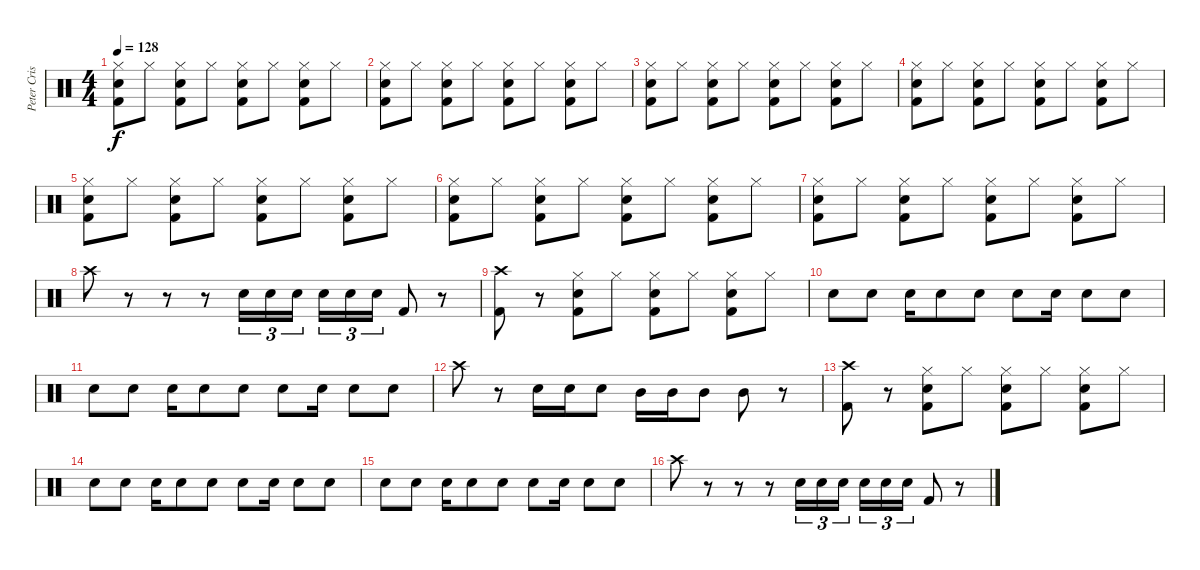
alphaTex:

\track ("Peter Criss" "Peter Cris") {instrument percussion}
\staff {score}
\articulation defaults
\ts (4 4)
\tempo 128
\clef neutral
\ks c
("Hi-Hat (closed)" "Electric Snare (hit)" "Kick (hit) 2").8{dy f} "Hi-Hat (closed)".8 ("Hi-Hat (closed)" "Electric Snare (hit)" "Kick (hit) 2").8 "Hi-Hat (closed)".8 ("Hi-Hat (closed)" "Electric Snare (hit)" "Kick (hit) 2").8 "Hi-Hat (closed)".8 ("Hi-Hat (closed)" "Electric Snare (hit)" "Kick (hit) 2").8 "Hi-Hat (closed)".8 |
("Hi-Hat (closed)" "Electric Snare (hit)" "Kick (hit) 2").8 "Hi-Hat (closed)".8 ("Hi-Hat (closed)" "Electric Snare (hit)" "Kick (hit) 2").8 "Hi-Hat (closed)".8 ("Hi-Hat (closed)" "Electric Snare (hit)" "Kick (hit) 2").8 "Hi-Hat (closed)".8 ("Hi-Hat (closed)" "Electric Snare (hit)" "Kick (hit) 2").8 "Hi-Hat (closed)".8 |
("Hi-Hat (closed)" "Electric Snare (hit)" "Kick (hit) 2").8 "Hi-Hat (closed)".8 ("Hi-Hat (closed)" "Electric Snare (hit)" "Kick (hit) 2").8 "Hi-Hat (closed)".8 ("Hi-Hat (closed)" "Electric Snare (hit)" "Kick (hit) 2").8 "Hi-Hat (closed)".8 ("Hi-Hat (closed)" "Electric Snare (hit)" "Kick (hit) 2").8 "Hi-Hat (closed)".8 |
("Hi-Hat (closed)" "Electric Snare (hit)" "Kick (hit) 2").8 "Hi-Hat (closed)".8 ("Hi-Hat (closed)" "Electric Snare (hit)" "Kick (hit) 2").8 "Hi-Hat (closed)".8 ("Hi-Hat (closed)" "Electric Snare (hit)" "Kick (hit) 2").8 "Hi-Hat (closed)".8 ("Hi-Hat (closed)" "Electric Snare (hit)" "Kick (hit) 2").8 "Hi-Hat (closed)".8 |
("Hi-Hat (closed)" "Electric Snare (hit)" "Kick (hit) 2").8 "Hi-Hat (closed)".8 ("Hi-Hat (closed)" "Electric Snare (hit)" "Kick (hit) 2").8 "Hi-Hat (closed)".8 ("Hi-Hat (closed)" "Electric Snare (hit)" "Kick (hit) 2").8 "Hi-Hat (closed)".8 ("Hi-Hat (closed)" "Electric Snare (hit)" "Kick (hit) 2").8 "Hi-Hat (closed)".8 |
("Hi-Hat (closed)" "Electric Snare (hit)" "Kick (hit) 2").8 "Hi-Hat (closed)".8 ("Hi-Hat (closed)" "Electric Snare (hit)" "Kick (hit) 2").8 "Hi-Hat (closed)".8 ("Hi-Hat (closed)" "Electric Snare (hit)" "Kick (hit) 2").8 "Hi-Hat (closed)".8 ("Hi-Hat (closed)" "Electric Snare (hit)" "Kick (hit) 2").8 "Hi-Hat (closed)".8 |
("Hi-Hat (closed)" "Electric Snare (hit)" "Kick (hit) 2").8 "Hi-Hat (closed)".8 ("Hi-Hat (closed)" "Electric Snare (hit)" "Kick (hit) 2").8 "Hi-Hat (closed)".8 ("Hi-Hat (closed)" "Electric Snare (hit)" "Kick (hit) 2").8 "Hi-Hat (closed)".8 ("Hi-Hat (closed)" "Electric Snare (hit)" "Kick (hit) 2").8 "Hi-Hat (closed)".8 |
"Crash high (hit)".8 r.8 r.8 r.8 "Electric Snare (hit)".16{tu (3 2)} "Electric Snare (hit)".16{tu (3 2)} "Electric Snare (hit)".16{tu (3 2)} "Electric Snare (hit)".16{tu (3 2)} "Electric Snare (hit)".16{tu (3 2)} "Electric Snare (hit)".16{tu (3 2)} "Kick (hit) 2".8 r.8 |
("Crash high (hit)" "Kick (hit) 2").8 r.8 ("Hi-Hat (closed)" "Electric Snare (hit)" "Kick (hit) 2").8 "Hi-Hat (closed)".8 ("Hi-Hat (closed)" "Electric Snare (hit)" "Kick (hit) 2").8 "Hi-Hat (closed)".8 ("Hi-Hat (closed)" "Electric Snare (hit)" "Kick (hit) 2").8 "Hi-Hat (closed)".8 |
"Electric Snare (hit)".8 "Electric Snare (hit)".8 "Electric Snare (hit)".16 "Electric Snare (hit)".8 "Electric Snare (hit)".8 "Electric Snare (hit)".8 "Electric Snare (hit)".16 "Electric Snare (hit)".8 "Electric Snare (hit)".8 |
"Electric Snare (hit)".8 "Electric Snare (hit)".8 "Electric Snare (hit)".16 "Electric Snare (hit)".8 "Electric Snare (hit)".8 "Electric Snare (hit)".8 "Electric Snare (hit)".16 "Electric Snare (hit)".8 "Electric Snare (hit)".8 |
"Crash high (hit)".8 r.8 "Electric Snare (hit)".16 "Electric Snare (hit)".16 "Electric Snare (hit)".8 "Mid Tom (hit)".16 "Mid Tom (hit)".16 "Mid Tom (hit)".8 "Mid Tom (hit)".8 r.8 |
("Crash high (hit)" "Kick (hit) 2").8 r.8 ("Hi-Hat (closed)" "Electric Snare (hit)" "Kick (hit) 2").8 "Hi-Hat (closed)".8 ("Hi-Hat (closed)" "Electric Snare (hit)" "Kick (hit) 2").8 "Hi-Hat (closed)".8 ("Hi-Hat (closed)" "Electric Snare (hit)" "Kick (hit) 2").8 "Hi-Hat (closed)".8 |
"Electric Snare (hit)".8 "Electric Snare (hit)".8 "Electric Snare (hit)".16 "Electric Snare (hit)".8 "Electric Snare (hit)".8 "Electric Snare (hit)".8 "Electric Snare (hit)".16 "Electric Snare (hit)".8 "Electric Snare (hit)".8 |
"Electric Snare (hit)".8 "Electric Snare (hit)".8 "Electric Snare (hit)".16 "Electric Snare (hit)".8 "Electric Snare (hit)".8 "Electric Snare (hit)".8 "Electric Snare (hit)".16 "Electric Snare (hit)".8 "Electric Snare (hit)".8 |
"Crash high (hit)".8 r.8 r.8 r.8 "Electric Snare (hit)".16{tu (3 2)} "Electric Snare (hit)".16{tu (3 2)} "Electric Snare (hit)".16{tu (3 2)} "Electric Snare (hit)".16{tu (3 2)} "Electric Snare (hit)".16{tu (3 2)} "Electric Snare (hit)".16{tu (3 2)} "Kick (hit) 2".8 r.8
